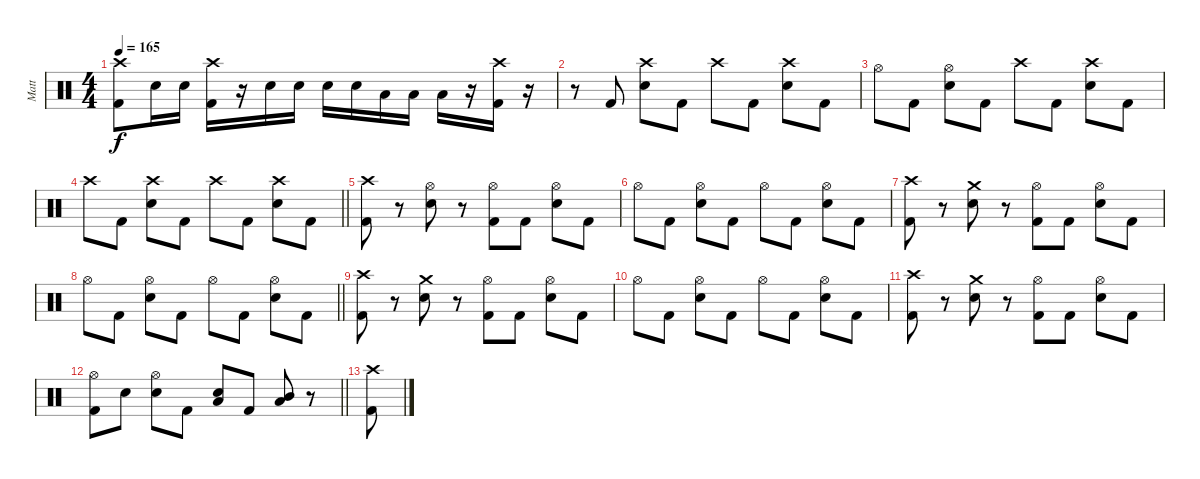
\track ("Matt" "Matt") {instrument percussion}
\staff {score}
\articulation defaults
\ts (4 4)
\tempo 165
\clef neutral
\ks c
("Crash high (hit)" "Kick (hit) 2").8{dy f} "Snare (hit) 2".16 "Snare (hit) 2".16 ("Crash high (hit)" "Kick (hit) 2").16 r.16 "Snare (hit) 2".16 "Snare (hit) 2".16 "Snare (hit) 2".16 "Snare (hit) 2".16 "Low Tom (hit)".16 "Low Tom (hit)".16 "Low Tom (hit)".16 r.16 ("Crash high (hit)" "Kick (hit) 2").16 r.16 |
r.8 "Kick (hit) 2".8 ("Crash high (hit)" "Snare (hit) 2").8 "Kick (hit) 2".8 "Crash high (hit)".8 "Kick (hit) 2".8 ("Crash high (hit)" "Snare (hit) 2").8 "Kick (hit) 2".8 |
"Hi-Hat (open)".8 "Kick (hit) 2".8 ("Hi-Hat (open)" "Snare (hit) 2").8 "Kick (hit) 2".8 "Crash high (hit)".8 "Kick (hit) 2".8 ("Crash high (hit)" "Snare (hit) 2").8 "Kick (hit) 2".8 |
\barLineRight lightlight "Crash high (hit)".8 "Kick (hit) 2".8
("Crash high (hit)" "Snare (hit) 2").8 "Kick (hit) 2".8 "Crash high (hit)".8 "Kick (hit) 2".8 ("Crash high (hit)" "Snare (hit) 2").8 "Kick (hit) 2".8 |
("Crash high (hit)" "Kick (hit) 2").8 r.8 ("Hi-Hat (open)" "Snare (hit) 2").8 r.8 ("Hi-Hat (open)" "Kick (hit) 2").8 "Kick (hit) 2".8 ("Hi-Hat (open)" "Snare (hit) 2").8 "Kick (hit) 2".8 |
"Hi-Hat (open)".8 "Kick (hit) 2".8 ("Hi-Hat (open)" "Snare (hit) 2").8 "Kick (hit) 2".8 "Hi-Hat (open)".8 "Kick (hit) 2".8 ("Hi-Hat (open)" "Snare (hit) 2").8 "Kick (hit) 2".8 |
("Crash high (hit)" "Kick (hit) 2").8 r.8 ("Crash medium (hit)" "Snare (hit) 2").8 r.8 ("Hi-Hat (open)" "Kick (hit) 2").8 "Kick (hit) 2".8 ("Hi-Hat (open)" "Snare (hit) 2").8 "Kick (hit) 2".8 |
\barLineRight lightlight "Hi-Hat (open)".8 "Kick (hit) 2".8
("Hi-Hat (open)" "Snare (hit) 2").8 "Kick (hit) 2".8 "Hi-Hat (open)".8 "Kick (hit) 2".8 ("Hi-Hat (open)" "Snare (hit) 2").8 "Kick (hit) 2".8 |
("Crash high (hit)" "Kick (hit) 2").8 r.8 ("Crash medium (hit)" "Snare (hit) 2").8 r.8 ("Hi-Hat (open)" "Kick (hit) 2").8 "Kick (hit) 2".8 ("Hi-Hat (open)" "Snare (hit) 2").8 "Kick (hit) 2".8 |
"Hi-Hat (open)".8 "Kick (hit) 2".8 ("Hi-Hat (open)" "Snare (hit) 2").8 "Kick (hit) 2".8 "Hi-Hat (open)".8 "Kick (hit) 2".8 ("Hi-Hat (open)" "Snare (hit) 2").8 "Kick (hit) 2".8 |
("Crash high (hit)" "Kick (hit) 2").8 r.8 ("Crash medium (hit)" "Snare (hit) 2").8 r.8 ("Hi-Hat (open)" "Kick (hit) 2").8 "Kick (hit) 2".8 ("Hi-Hat (open)" "Snare (hit) 2").8 "Kick (hit) 2".8 |
\barLineRight lightlight
("Hi-Hat (open)" "Kick (hit) 2").8 "Snare (hit) 2".8 ("Hi-Hat (open)" "Snare (hit) 2").8 "Kick (hit) 2".8 ("Low Tom (hit)" "Snare (hit) 2").8 "Kick (hit) 2".8 ("Low Tom (hit)" "Mid Tom (hit)").8 r.8 |
("Crash high (hit)" "Kick (hit) 2").8
